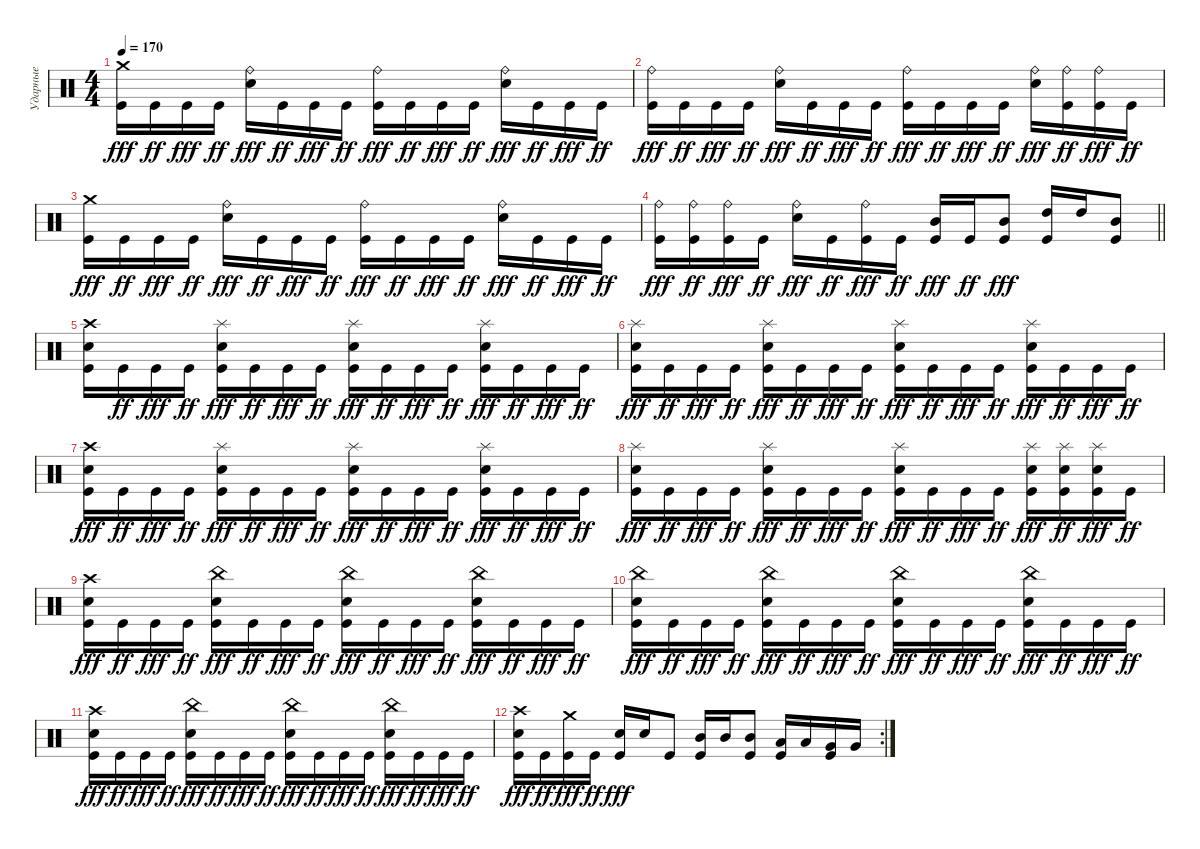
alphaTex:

\track ("Ударные" "Ударные") {instrument percussion}
\staff {score}
\articulation defaults
\ts (4 4)
\tempo 170
\clef neutral
\ks c
("Crash medium (hit)" "Kick (hit)").16{dy fff} "Kick (hit)".16{dy ff} "Kick (hit)".16{dy fff} "Kick (hit)".16{dy ff} ("Ride (bell)" "Electric Snare (hit)").16{dy fff} "Kick (hit)".16{dy ff} "Kick (hit)".16{dy fff} "Kick (hit)".16{dy ff} ("Ride (bell)" "Kick (hit)").16{dy fff} "Kick (hit)".16{dy ff} "Kick (hit)".16{dy fff} "Kick (hit)".16{dy ff} ("Ride (bell)" "Electric Snare (hit)").16{dy fff} "Kick (hit)".16{dy ff} "Kick (hit)".16{dy fff} "Kick (hit)".16{dy ff} |
("Ride (bell)" "Kick (hit)").16{dy fff} "Kick (hit)".16{dy ff} "Kick (hit)".16{dy fff} "Kick (hit)".16{dy ff} ("Ride (bell)" "Electric Snare (hit)").16{dy fff} "Kick (hit)".16{dy ff} "Kick (hit)".16{dy fff} "Kick (hit)".16{dy ff} ("Ride (bell)" "Kick (hit)").16{dy fff} "Kick (hit)".16{dy ff} "Kick (hit)".16{dy fff} "Kick (hit)".16{dy ff} ("Ride (bell)" "Electric Snare (hit)").16{dy fff} ("Ride (bell)" "Kick (hit)").16{dy ff} ("Ride (bell)" "Kick (hit)").16{dy fff} "Kick (hit)".16{dy ff} |
("Crash medium (hit)" "Kick (hit)").16{dy fff} "Kick (hit)".16{dy ff} "Kick (hit)".16{dy fff} "Kick (hit)".16{dy ff} ("Ride (bell)" "Electric Snare (hit)").16{dy fff} "Kick (hit)".16{dy ff} "Kick (hit)".16{dy fff} "Kick (hit)".16{dy ff} ("Ride (bell)" "Kick (hit)").16{dy fff} "Kick (hit)".16{dy ff} "Kick (hit)".16{dy fff} "Kick (hit)".16{dy ff} ("Ride (bell)" "Electric Snare (hit)").16{dy fff} "Kick (hit)".16{dy ff} "Kick (hit)".16{dy fff} "Kick (hit)".16{dy ff} |
\barLineRight lightlight
("Ride (bell)" "Kick (hit)").16{dy fff} ("Ride (bell)" "Kick (hit)").16{dy ff} ("Ride (bell)" "Kick (hit)").16{dy fff} "Kick (hit)".16{dy ff} ("Ride (bell)" "Electric Snare (hit)").16{dy fff} "Kick (hit)".16{dy ff} ("Ride (bell)" "Kick (hit)").16{dy fff} "Kick (hit)".16{dy ff} ("Mid Tom (hit)" "Kick (hit)").16{dy fff} "Kick (hit)".16{dy ff} ("Mid Tom (hit)" "Kick (hit)").8{dy fff} ("High Tom (hit)" "Kick (hit)").16 "High Tom (hit)".16 ("Mid Tom (hit)" "Kick (hit)").8 |
("Crash high (hit)" "Electric Snare (hit)" "Kick (hit)").16 "Kick (hit)".16{dy ff} "Kick (hit)".16{dy fff} "Kick (hit)".16{dy ff} ("Splash (hit)" "Electric Snare (hit)" "Kick (hit)").16{dy fff} "Kick (hit)".16{dy ff} "Kick (hit)".16{dy fff} "Kick (hit)".16{dy ff} ("Splash (hit)" "Electric Snare (hit)" "Kick (hit)").16{dy fff} "Kick (hit)".16{dy ff} "Kick (hit)".16{dy fff} "Kick (hit)".16{dy ff} ("Splash (hit)" "Electric Snare (hit)" "Kick (hit)").16{dy fff} "Kick (hit)".16{dy ff} "Kick (hit)".16{dy fff} "Kick (hit)".16{dy ff} |
("Splash (hit)" "Electric Snare (hit)" "Kick (hit)").16{dy fff} "Kick (hit)".16{dy ff} "Kick (hit)".16{dy fff} "Kick (hit)".16{dy ff} ("Splash (hit)" "Electric Snare (hit)" "Kick (hit)").16{dy fff} "Kick (hit)".16{dy ff} "Kick (hit)".16{dy fff} "Kick (hit)".16{dy ff} ("Splash (hit)" "Electric Snare (hit)" "Kick (hit)").16{dy fff} "Kick (hit)".16{dy ff} "Kick (hit)".16{dy fff} "Kick (hit)".16{dy ff} ("Splash (hit)" "Electric Snare (hit)" "Kick (hit)").16{dy fff} "Kick (hit)".16{dy ff} "Kick (hit)".16{dy fff} "Kick (hit)".16{dy ff} |
("Crash high (hit)" "Electric Snare (hit)" "Kick (hit)").16{dy fff} "Kick (hit)".16{dy ff} "Kick (hit)".16{dy fff} "Kick (hit)".16{dy ff} ("Splash (hit)" "Electric Snare (hit)" "Kick (hit)").16{dy fff} "Kick (hit)".16{dy ff} "Kick (hit)".16{dy fff} "Kick (hit)".16{dy ff} ("Splash (hit)" "Electric Snare (hit)" "Kick (hit)").16{dy fff} "Kick (hit)".16{dy ff} "Kick (hit)".16{dy fff} "Kick (hit)".16{dy ff} ("Splash (hit)" "Electric Snare (hit)" "Kick (hit)").16{dy fff} "Kick (hit)".16{dy ff} "Kick (hit)".16{dy fff} "Kick (hit)".16{dy ff} |
("Splash (hit)" "Electric Snare (hit)" "Kick (hit)").16{dy fff} "Kick (hit)".16{dy ff} "Kick (hit)".16{dy fff} "Kick (hit)".16{dy ff} ("Splash (hit)" "Electric Snare (hit)" "Kick (hit)").16{dy fff} "Kick (hit)".16{dy ff} "Kick (hit)".16{dy fff} "Kick (hit)".16{dy ff} ("Splash (hit)" "Electric Snare (hit)" "Kick (hit)").16{dy fff} "Kick (hit)".16{dy ff} "Kick (hit)".16{dy fff} "Kick (hit)".16{dy ff} ("Splash (hit)" "Electric Snare (hit)" "Kick (hit)").16{dy fff} ("Splash (hit)" "Electric Snare (hit)" "Kick (hit)").16{dy ff} ("Splash (hit)" "Electric Snare (hit)" "Kick (hit)").16{dy fff} "Kick (hit)".16{dy ff} |
("Crash high (hit)" "Electric Snare (hit)" "Kick (hit)").16{dy fff} "Kick (hit)".16{dy ff} "Kick (hit)".16{dy fff} "Kick (hit)".16{dy ff} ("China (hit)" "Electric Snare (hit)" "Kick (hit)").16{dy fff} "Kick (hit)".16{dy ff} "Kick (hit)".16{dy fff} "Kick (hit)".16{dy ff} ("China (hit)" "Electric Snare (hit)" "Kick (hit)").16{dy fff} "Kick (hit)".16{dy ff} "Kick (hit)".16{dy fff} "Kick (hit)".16{dy ff} ("China (hit)" "Electric Snare (hit)" "Kick (hit)").16{dy fff} "Kick (hit)".16{dy ff} "Kick (hit)".16{dy fff} "Kick (hit)".16{dy ff} |
("China (hit)" "Electric Snare (hit)" "Kick (hit)").16{dy fff} "Kick (hit)".16{dy ff} "Kick (hit)".16{dy fff} "Kick (hit)".16{dy ff} ("China (hit)" "Electric Snare (hit)" "Kick (hit)").16{dy fff} "Kick (hit)".16{dy ff} "Kick (hit)".16{dy fff} "Kick (hit)".16{dy ff} ("China (hit)" "Electric Snare (hit)" "Kick (hit)").16{dy fff} "Kick (hit)".16{dy ff} "Kick (hit)".16{dy fff} "Kick (hit)".16{dy ff} ("China (hit)" "Electric Snare (hit)" "Kick (hit)").16{dy fff} "Kick (hit)".16{dy ff} "Kick (hit)".16{dy fff} "Kick (hit)".16{dy ff} |
("Crash high (hit)" "Electric Snare (hit)" "Kick (hit)").16{dy fff} "Kick (hit)".16{dy ff} "Kick (hit)".16{dy fff} "Kick (hit)".16{dy ff} ("China (hit)" "Electric Snare (hit)" "Kick (hit)").16{dy fff} "Kick (hit)".16{dy ff} "Kick (hit)".16{dy fff} "Kick (hit)".16{dy ff} ("China (hit)" "Electric Snare (hit)" "Kick (hit)").16{dy fff} "Kick (hit)".16{dy ff} "Kick (hit)".16{dy fff} "Kick (hit)".16{dy ff} ("China (hit)" "Electric Snare (hit)" "Kick (hit)").16{dy fff} "Kick (hit)".16{dy ff} "Kick (hit)".16{dy fff} "Kick (hit)".16{dy ff} |
\rc 2
("Crash high (hit)" "Electric Snare (hit)" "Kick (hit)").16{dy fff} "Kick (hit)".16{dy ff} ("Crash medium (hit)" "Kick (hit)").16{dy fff} "Kick (hit)".16{dy ff} ("Electric Snare (hit)" "Kick (hit)").16{dy fff} "Electric Snare (hit)".16 "Kick (hit)".8 ("Mid Tom (hit)" "Kick (hit)").16 "Mid Tom (hit)".16 ("Mid Tom (hit)" "Kick (hit)").8 ("Low Tom (hit)" "Kick (hit)").16 "Low Tom (hit)".16 ("Very Low Tom (hit)" "Kick (hit)").16 "Very Low Tom (hit)".16
